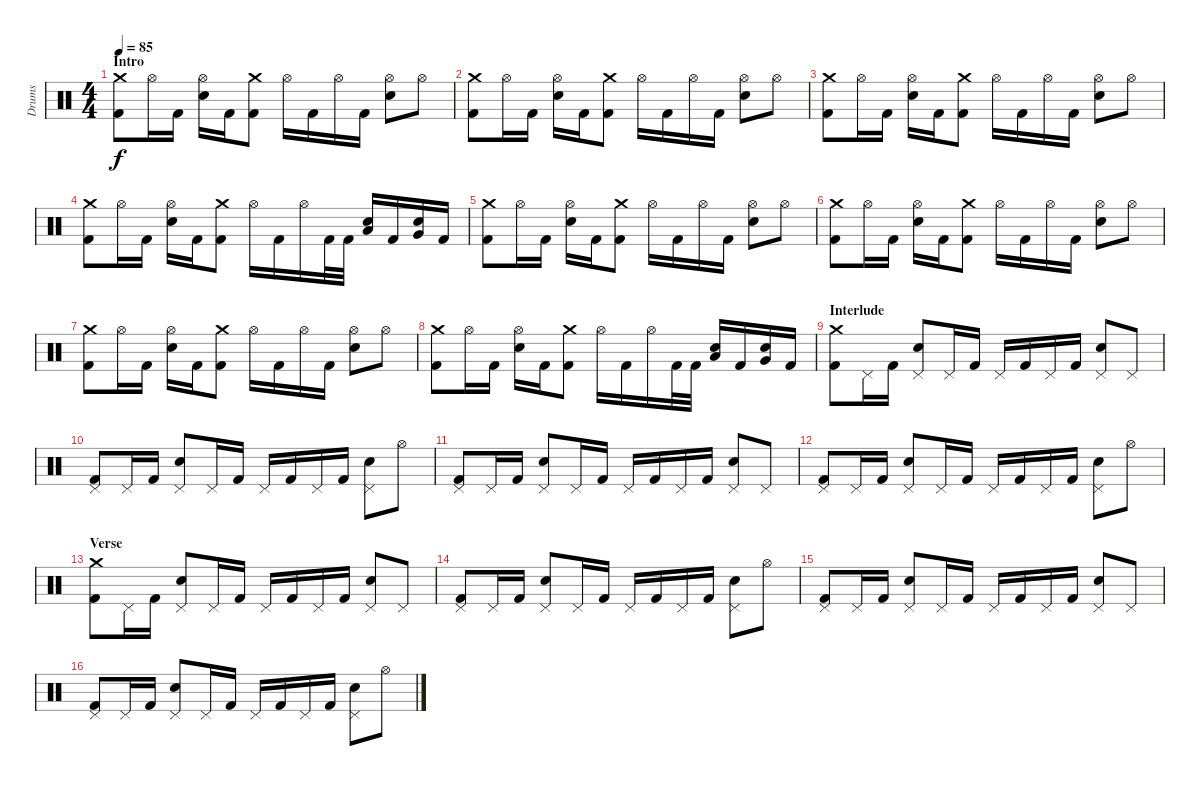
\track ("Drums" "Drums") {instrument percussion}
\staff {score}
\articulation defaults
\ts (4 4)
\section ("" "Intro")
\tempo 85
\clef neutral
\ks c
("Crash medium (hit)" "Kick (hit) 2").8{dy f} "Hi-Hat (open)".16 "Kick (hit) 2".16 ("Hi-Hat (open)" "Electric Snare (hit)").16 "Kick (hit) 2".16 ("Crash medium (hit)" "Kick (hit) 2").8 "Hi-Hat (open)".16 "Kick (hit) 2".16 "Hi-Hat (open)".16 "Kick (hit) 2".16 ("Hi-Hat (open)" "Electric Snare (hit)").8 "Hi-Hat (open)".8 |
("Crash medium (hit)" "Kick (hit) 2").8 "Hi-Hat (open)".16 "Kick (hit) 2".16 ("Hi-Hat (open)" "Electric Snare (hit)").16 "Kick (hit) 2".16 ("Crash medium (hit)" "Kick (hit) 2").8 "Hi-Hat (open)".16 "Kick (hit) 2".16 "Hi-Hat (open)".16 "Kick (hit) 2".16 ("Hi-Hat (open)" "Electric Snare (hit)").8 "Hi-Hat (open)".8 |
("Crash medium (hit)" "Kick (hit) 2").8 "Hi-Hat (open)".16 "Kick (hit) 2".16 ("Hi-Hat (open)" "Electric Snare (hit)").16 "Kick (hit) 2".16 ("Crash medium (hit)" "Kick (hit) 2").8 "Hi-Hat (open)".16 "Kick (hit) 2".16 "Hi-Hat (open)".16 "Kick (hit) 2".16 ("Hi-Hat (open)" "Electric Snare (hit)").8 "Hi-Hat (open)".8 |
("Crash medium (hit)" "Kick (hit) 2").8 "Hi-Hat (open)".16 "Kick (hit) 2".16 ("Hi-Hat (open)" "Electric Snare (hit)").16 "Kick (hit) 2".16 ("Crash medium (hit)" "Kick (hit) 2").8 "Hi-Hat (open)".16 "Kick (hit) 2".16 "Hi-Hat (open)".16 "Kick (hit) 2".32 "Kick (hit) 2".32 ("Electric Snare (hit)" "Low Tom (hit)").16 "Kick (hit) 2".16 ("Electric Snare (hit)" "Very Low Tom (hit)").16 "Kick (hit) 2".16 |
("Crash medium (hit)" "Kick (hit) 2").8 "Hi-Hat (open)".16 "Kick (hit) 2".16 ("Hi-Hat (open)" "Electric Snare (hit)").16 "Kick (hit) 2".16 ("Crash medium (hit)" "Kick (hit) 2").8 "Hi-Hat (open)".16 "Kick (hit) 2".16 "Hi-Hat (open)".16 "Kick (hit) 2".16 ("Hi-Hat (open)" "Electric Snare (hit)").8 "Hi-Hat (open)".8 |
("Crash medium (hit)" "Kick (hit) 2").8 "Hi-Hat (open)".16 "Kick (hit) 2".16 ("Hi-Hat (open)" "Electric Snare (hit)").16 "Kick (hit) 2".16 ("Crash medium (hit)" "Kick (hit) 2").8 "Hi-Hat (open)".16 "Kick (hit) 2".16 "Hi-Hat (open)".16 "Kick (hit) 2".16 ("Hi-Hat (open)" "Electric Snare (hit)").8 "Hi-Hat (open)".8 |
("Crash medium (hit)" "Kick (hit) 2").8 "Hi-Hat (open)".16 "Kick (hit) 2".16 ("Hi-Hat (open)" "Electric Snare (hit)").16 "Kick (hit) 2".16 ("Crash medium (hit)" "Kick (hit) 2").8 "Hi-Hat (open)".16 "Kick (hit) 2".16 "Hi-Hat (open)".16 "Kick (hit) 2".16 ("Hi-Hat (open)" "Electric Snare (hit)").8 "Hi-Hat (open)".8 |
("Crash medium (hit)" "Kick (hit) 2").8 "Hi-Hat (open)".16 "Kick (hit) 2".16 ("Hi-Hat (open)" "Electric Snare (hit)").16 "Kick (hit) 2".16 ("Crash medium (hit)" "Kick (hit) 2").8 "Hi-Hat (open)".16 "Kick (hit) 2".16 "Hi-Hat (open)".16 "Kick (hit) 2".32 "Kick (hit) 2".32 ("Electric Snare (hit)" "Low Tom (hit)").16 "Kick (hit) 2".16 ("Electric Snare (hit)" "Very Low Tom (hit)").16 "Kick (hit) 2".16 |
\section ("" "Interlude")
("Crash medium (hit)" "Kick (hit) 2").8 "Pedal Hi-Hat (hit)".16 "Kick (hit) 2".16 ("Pedal Hi-Hat (hit)" "Electric Snare (hit)").8 "Pedal Hi-Hat (hit)".16 "Kick (hit) 2".16 "Pedal Hi-Hat (hit)".16 "Kick (hit) 2".16 "Pedal Hi-Hat (hit)".16 "Kick (hit) 2".16 ("Pedal Hi-Hat (hit)" "Electric Snare (hit)").8 "Pedal Hi-Hat (hit)".8 |
("Pedal Hi-Hat (hit)" "Kick (hit) 2").8 "Pedal Hi-Hat (hit)".16 "Kick (hit) 2".16 ("Pedal Hi-Hat (hit)" "Electric Snare (hit)").8 "Pedal Hi-Hat (hit)".16 "Kick (hit) 2".16 "Pedal Hi-Hat (hit)".16 "Kick (hit) 2".16 "Pedal Hi-Hat (hit)".16 "Kick (hit) 2".16 ("Pedal Hi-Hat (hit)" "Electric Snare (hit)").8 "Hi-Hat (open)".8 |
("Pedal Hi-Hat (hit)" "Kick (hit) 2").8 "Pedal Hi-Hat (hit)".16 "Kick (hit) 2".16 ("Pedal Hi-Hat (hit)" "Electric Snare (hit)").8 "Pedal Hi-Hat (hit)".16 "Kick (hit) 2".16 "Pedal Hi-Hat (hit)".16 "Kick (hit) 2".16 "Pedal Hi-Hat (hit)".16 "Kick (hit) 2".16 ("Pedal Hi-Hat (hit)" "Electric Snare (hit)").8 "Pedal Hi-Hat (hit)".8 |
("Pedal Hi-Hat (hit)" "Kick (hit) 2").8 "Pedal Hi-Hat (hit)".16 "Kick (hit) 2".16 ("Pedal Hi-Hat (hit)" "Electric Snare (hit)").8 "Pedal Hi-Hat (hit)".16 "Kick (hit) 2".16 "Pedal Hi-Hat (hit)".16 "Kick (hit) 2".16 "Pedal Hi-Hat (hit)".16 "Kick (hit) 2".16 ("Pedal Hi-Hat (hit)" "Electric Snare (hit)").8 "Hi-Hat (open)".8 |
\section ("" "Verse")
("Crash medium (hit)" "Kick (hit) 2").8 "Pedal Hi-Hat (hit)".16 "Kick (hit) 2".16 ("Pedal Hi-Hat (hit)" "Electric Snare (hit)").8 "Pedal Hi-Hat (hit)".16 "Kick (hit) 2".16 "Pedal Hi-Hat (hit)".16 "Kick (hit) 2".16 "Pedal Hi-Hat (hit)".16 "Kick (hit) 2".16 ("Pedal Hi-Hat (hit)" "Electric Snare (hit)").8 "Pedal Hi-Hat (hit)".8 |
("Pedal Hi-Hat (hit)" "Kick (hit) 2").8 "Pedal Hi-Hat (hit)".16 "Kick (hit) 2".16 ("Pedal Hi-Hat (hit)" "Electric Snare (hit)").8 "Pedal Hi-Hat (hit)".16 "Kick (hit) 2".16 "Pedal Hi-Hat (hit)".16 "Kick (hit) 2".16 "Pedal Hi-Hat (hit)".16 "Kick (hit) 2".16 ("Pedal Hi-Hat (hit)" "Electric Snare (hit)").8 "Hi-Hat (open)".8 |
("Pedal Hi-Hat (hit)" "Kick (hit) 2").8 "Pedal Hi-Hat (hit)".16 "Kick (hit) 2".16 ("Pedal Hi-Hat (hit)" "Electric Snare (hit)").8 "Pedal Hi-Hat (hit)".16 "Kick (hit) 2".16 "Pedal Hi-Hat (hit)".16 "Kick (hit) 2".16 "Pedal Hi-Hat (hit)".16 "Kick (hit) 2".16 ("Pedal Hi-Hat (hit)" "Electric Snare (hit)").8 "Pedal Hi-Hat (hit)".8 |
("Pedal Hi-Hat (hit)" "Kick (hit) 2").8 "Pedal Hi-Hat (hit)".16 "Kick (hit) 2".16 ("Pedal Hi-Hat (hit)" "Electric Snare (hit)").8 "Pedal Hi-Hat (hit)".16 "Kick (hit) 2".16 "Pedal Hi-Hat (hit)".16 "Kick (hit) 2".16 "Pedal Hi-Hat (hit)".16 "Kick (hit) 2".16 ("Pedal Hi-Hat (hit)" "Electric Snare (hit)").8 "Hi-Hat (open)".8
